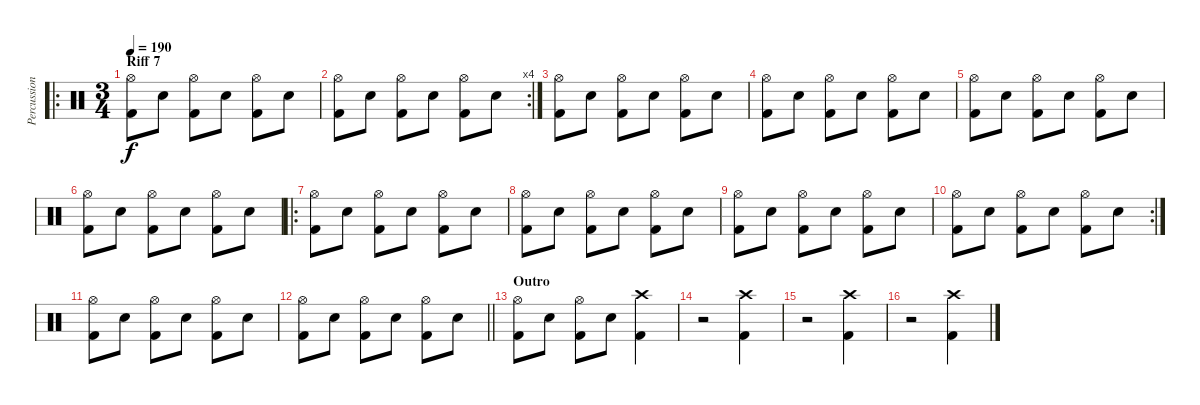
\track ("Percussion" "Percussion") {instrument percussion}
\staff {score}
\articulation defaults
\ro
\ts (3 4)
\section ("" "Riff 7")
\tempo 190
\clef neutral
\ks c
("Hi-Hat (open)" "Kick (hit) 2").8{dy f} "Electric Snare (hit)".8 ("Hi-Hat (open)" "Kick (hit) 2").8 "Electric Snare (hit)".8 ("Hi-Hat (open)" "Kick (hit) 2").8 "Electric Snare (hit)".8 |
\rc 4
("Hi-Hat (open)" "Kick (hit) 2").8 "Electric Snare (hit)".8 ("Hi-Hat (open)" "Kick (hit) 2").8 "Electric Snare (hit)".8 ("Hi-Hat (open)" "Kick (hit) 2").8 "Electric Snare (hit)".8 |
("Hi-Hat (open)" "Kick (hit) 2").8 "Electric Snare (hit)".8 ("Hi-Hat (open)" "Kick (hit) 2").8 "Electric Snare (hit)".8 ("Hi-Hat (open)" "Kick (hit) 2").8 "Electric Snare (hit)".8 |
("Hi-Hat (open)" "Kick (hit) 2").8 "Electric Snare (hit)".8 ("Hi-Hat (open)" "Kick (hit) 2").8 "Electric Snare (hit)".8 ("Hi-Hat (open)" "Kick (hit) 2").8 "Electric Snare (hit)".8 |
("Hi-Hat (open)" "Kick (hit) 2").8 "Electric Snare (hit)".8 ("Hi-Hat (open)" "Kick (hit) 2").8 "Electric Snare (hit)".8 ("Hi-Hat (open)" "Kick (hit) 2").8 "Electric Snare (hit)".8 |
("Hi-Hat (open)" "Kick (hit) 2").8 "Electric Snare (hit)".8 ("Hi-Hat (open)" "Kick (hit) 2").8 "Electric Snare (hit)".8 ("Hi-Hat (open)" "Kick (hit) 2").8 "Electric Snare (hit)".8 |
\ro
("Hi-Hat (open)" "Kick (hit) 2").8 "Electric Snare (hit)".8 ("Hi-Hat (open)" "Kick (hit) 2").8 "Electric Snare (hit)".8 ("Hi-Hat (open)" "Kick (hit) 2").8 "Electric Snare (hit)".8 |
("Hi-Hat (open)" "Kick (hit) 2").8 "Electric Snare (hit)".8 ("Hi-Hat (open)" "Kick (hit) 2").8 "Electric Snare (hit)".8 ("Hi-Hat (open)" "Kick (hit) 2").8 "Electric Snare (hit)".8 |
("Hi-Hat (open)" "Kick (hit) 2").8 "Electric Snare (hit)".8 ("Hi-Hat (open)" "Kick (hit) 2").8 "Electric Snare (hit)".8 ("Hi-Hat (open)" "Kick (hit) 2").8 "Electric Snare (hit)".8 |
\rc 2
("Hi-Hat (open)" "Kick (hit) 2").8 "Electric Snare (hit)".8 ("Hi-Hat (open)" "Kick (hit) 2").8 "Electric Snare (hit)".8 ("Hi-Hat (open)" "Kick (hit) 2").8 "Electric Snare (hit)".8 |
("Hi-Hat (open)" "Kick (hit) 2").8 "Electric Snare (hit)".8 ("Hi-Hat (open)" "Kick (hit) 2").8 "Electric Snare (hit)".8 ("Hi-Hat (open)" "Kick (hit) 2").8 "Electric Snare (hit)".8 |
\barLineRight lightlight
("Hi-Hat (open)" "Kick (hit) 2").8 "Electric Snare (hit)".8 ("Hi-Hat (open)" "Kick (hit) 2").8 "Electric Snare (hit)".8 ("Hi-Hat (open)" "Kick (hit) 2").8 "Electric Snare (hit)".8 |
\section ("" "Outro")
("Hi-Hat (open)" "Kick (hit) 2").8 "Electric Snare (hit)".8 ("Hi-Hat (open)" "Kick (hit) 2").8 "Electric Snare (hit)".8 ("Crash high (hit)" "Kick (hit) 2").4 |
r.2 ("Crash high (hit)" "Kick (hit) 2").4 |
r.2 ("Crash high (hit)" "Kick (hit) 2").4 |
r.2 ("Crash high (hit)" "Kick (hit) 2").4
